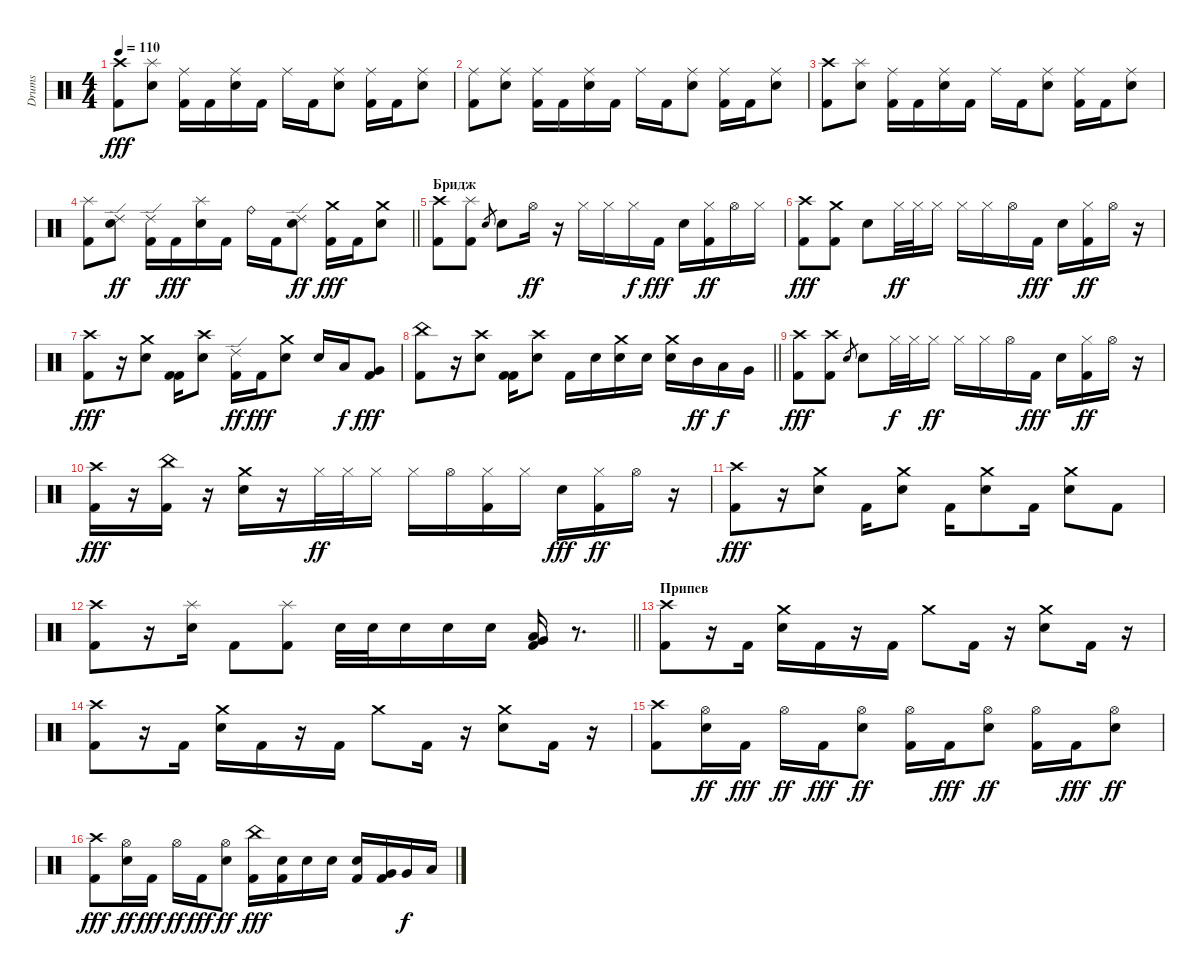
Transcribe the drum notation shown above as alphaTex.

\track ("Drums" "Drums") {instrument percussion}
\staff {score}
\articulation defaults
\ts (4 4)
\tempo 110
\clef neutral
\ks c
("Kick (hit) 2" "Crash high (hit)").8{dy fff} ("Electric Snare (hit)" "Splash (hit)").8 ("Kick (hit) 2" "Ride (middle)").16 "Kick (hit) 2".16 ("Electric Snare (hit)" "Ride (middle)").16 "Kick (hit) 2".16 "Ride (middle)".16 "Kick (hit) 2".16 ("Electric Snare (hit)" "Ride (middle)").8 ("Kick (hit) 2" "Ride (middle)").16 "Kick (hit) 2".16 ("Electric Snare (hit)" "Ride (middle)").8 |
("Kick (hit) 2" "Ride (middle)").8 ("Electric Snare (hit)" "Ride (middle)").8 ("Kick (hit) 2" "Ride (middle)").16 "Kick (hit) 2".16 ("Electric Snare (hit)" "Ride (middle)").16 "Kick (hit) 2".16 "Ride (middle)".16 "Kick (hit) 2".16 ("Electric Snare (hit)" "Ride (middle)").8 ("Kick (hit) 2" "Ride (middle)").16 "Kick (hit) 2".16 ("Electric Snare (hit)" "Ride (middle)").8 |
("Kick (hit) 2" "Crash high (hit)").8 ("Electric Snare (hit)" "Splash (hit)").8 ("Kick (hit) 2" "Ride (middle)").16 "Kick (hit) 2".16 ("Electric Snare (hit)" "Ride (middle)").16 "Kick (hit) 2".16 "Ride (middle)".16 "Kick (hit) 2".16 ("Electric Snare (hit)" "Ride (middle)").8 ("Kick (hit) 2" "Ride (middle)").16 "Kick (hit) 2".16 ("Electric Snare (hit)" "Ride (middle)").8 |
\barLineRight lightlight
("Kick (hit) 2" "Splash (hit)").8 ("Electric Snare (hit)" "Ride (edge) 2").8{dy ff} ("Kick (hit) 2" "Ride (edge) 2").16 "Kick (hit) 2".16{dy fff} ("Electric Snare (hit)" "Splash (hit)").16 "Kick (hit) 2".16 "Ride (bell)".16 "Kick (hit) 2".16 ("Electric Snare (hit)" "Ride (edge) 2").8{dy ff} ("Kick (hit) 2" "Crash medium (hit)").16{dy fff} "Kick (hit) 2".16 ("Electric Snare (hit)" "Crash medium (hit)").8 |
\section ("" "Бридж")
("Kick (hit) 2" "Crash high (hit)").8 ("Kick (hit) 2" "Splash (hit)").8 "Electric Snare (hit)".8{gr} "Electric Snare (hit)".8 "Hi-Hat (open)".16{dy ff} r.16 "Hi-Hat (closed)".16 "Hi-Hat (closed)".16 "Hi-Hat (closed)".16{dy f} "Kick (hit) 2".16{dy fff} "Electric Snare (hit)".16 ("Kick (hit) 2" "Hi-Hat (closed)").16{dy ff} "Hi-Hat (open)".16 "Hi-Hat (closed)".16 |
("Kick (hit) 2" "Crash high (hit)").8{dy fff} ("Kick (hit) 2" "Crash medium (hit)").8 "Electric Snare (hit)".8 "Hi-Hat (closed)".32{dy ff} "Hi-Hat (closed)".32 "Hi-Hat (closed)".16 "Hi-Hat (closed)".16 "Hi-Hat (closed)".16 "Hi-Hat (open)".16 "Kick (hit) 2".16{dy fff} "Electric Snare (hit)".16 ("Kick (hit) 2" "Hi-Hat (closed)").16{dy ff} "Hi-Hat (open)".16 r.16 |
("Kick (hit) 2" "Crash high (hit)").8{dy fff} r.16 ("Electric Snare (hit)" "Crash medium (hit)").8 ("Kick (hit) 2" "Kick (hit) 2").16 ("Electric Snare (hit)" "Crash high (hit)").8 ("Kick (hit) 2" "Ride (edge) 2").16{dy ff} "Kick (hit) 2".16{dy fff} ("Electric Snare (hit)" "Crash medium (hit)").8 "Electric Snare (hit)".16 "Low Tom (hit)".16{dy f} ("Kick (hit) 2" "Very Low Tom (hit)").8{dy fff} |
\barLineRight lightlight
("Kick (hit) 2" "China (hit)").8 r.16 ("Electric Snare (hit)" "Crash high (hit)").8 ("Kick (hit) 2" "Kick (hit) 2").16 ("Electric Snare (hit)" "Crash high (hit)").8 "Kick (hit) 2".16 "Electric Snare (hit)".16 ("Electric Snare (hit)" "Crash medium (hit)").16 "Electric Snare (hit)".16 ("Electric Snare (hit)" "Crash medium (hit)").16 "Mid Tom (hit)".16{dy ff} "Low Tom (hit)".16{dy f} "Very Low Tom (hit)".16 |
("Kick (hit) 2" "Crash high (hit)").8{dy fff} ("Kick (hit) 2" "Crash high (hit)").8 "Electric Snare (hit)".8{gr} "Electric Snare (hit)".8 "Hi-Hat (closed)".32{dy f} "Hi-Hat (closed)".32 "Hi-Hat (closed)".16{dy ff} "Hi-Hat (closed)".16 "Hi-Hat (closed)".16 "Hi-Hat (open)".16 "Kick (hit) 2".16{dy fff} "Electric Snare (hit)".16 ("Kick (hit) 2" "Hi-Hat (closed)").16{dy ff} "Hi-Hat (open)".16 r.16 |
("Kick (hit) 2" "Crash high (hit)").16{dy fff} r.16 ("Kick (hit) 2" "China (hit)").16 r.16 ("Electric Snare (hit)" "Crash medium (hit)").16 r.16 "Hi-Hat (closed)".32{dy ff} "Hi-Hat (closed)".32 "Hi-Hat (closed)".16 "Hi-Hat (closed)".16 "Hi-Hat (open)".16 ("Kick (hit) 2" "Hi-Hat (closed)").16 "Hi-Hat (closed)".16 "Electric Snare (hit)".16{dy fff} ("Kick (hit) 2" "Hi-Hat (closed)").16{dy ff} "Hi-Hat (open)".16 r.16 |
("Kick (hit) 2" "Crash high (hit)").8{dy fff} r.16 ("Electric Snare (hit)" "Crash medium (hit)").8 "Kick (hit) 2".16 ("Electric Snare (hit)" "Crash medium (hit)").8 "Kick (hit) 2".16 ("Electric Snare (hit)" "Crash medium (hit)").8 "Kick (hit) 2".16 ("Electric Snare (hit)" "Crash medium (hit)").8 "Kick (hit) 2".8 |
\barLineRight lightlight
("Kick (hit) 2" "Crash high (hit)").8 r.16 ("Electric Snare (hit)" "Splash (hit)").16 "Kick (hit) 2".8 ("Kick (hit) 2" "Splash (hit)").8 "Electric Snare (hit)".32 "Electric Snare (hit)".32 "Electric Snare (hit)".16 "Electric Snare (hit)".16 "Electric Snare (hit)".16 ("Kick (hit) 2" "Low Floor Tom (hit)" "Very Low Tom (hit)").16 r.8{d} |
\section ("" "Припев")
("Kick (hit) 2" "Crash high (hit)").8 r.16 "Kick (hit) 2".16 ("Electric Snare (hit)" "Crash medium (hit)").16 "Kick (hit) 2".16 r.16 "Kick (hit) 2".16 "Crash medium (hit)".8 "Kick (hit) 2".16 r.16 ("Electric Snare (hit)" "Crash medium (hit)").8 "Kick (hit) 2".16 r.16 |
("Kick (hit) 2" "Crash high (hit)").8 r.16 "Kick (hit) 2".16 ("Electric Snare (hit)" "Crash medium (hit)").16 "Kick (hit) 2".16 r.16 "Kick (hit) 2".16 "Crash medium (hit)".8 "Kick (hit) 2".16 r.16 ("Electric Snare (hit)" "Crash medium (hit)").8 "Kick (hit) 2".16 r.16 |
("Kick (hit) 2" "Crash high (hit)").8 ("Electric Snare (hit)" "Hi-Hat (open)").16{dy ff} "Kick (hit) 2".16{dy fff} "Hi-Hat (open)".16{dy ff} "Kick (hit) 2".16{dy fff} ("Electric Snare (hit)" "Hi-Hat (open)").8{dy ff} ("Kick (hit) 2" "Hi-Hat (open)").16 "Kick (hit) 2".16{dy fff} ("Electric Snare (hit)" "Hi-Hat (open)").8{dy ff} ("Kick (hit) 2" "Hi-Hat (open)").16 "Kick (hit) 2".16{dy fff} ("Electric Snare (hit)" "Hi-Hat (open)").8{dy ff} |
("Kick (hit) 2" "Crash high (hit)").8{dy fff} ("Electric Snare (hit)" "Hi-Hat (open)").16{dy ff} "Kick (hit) 2".16{dy fff} "Hi-Hat (open)".16{dy ff} "Kick (hit) 2".16{dy fff} ("Electric Snare (hit)" "Hi-Hat (open)").8{dy ff} ("Kick (hit) 2" "China (hit)").16{dy fff} ("Kick (hit) 2" "Electric Snare (hit)").16 "Electric Snare (hit)".16 "Electric Snare (hit)".16 ("Kick (hit) 2" "Electric Snare (hit)").16 ("Kick (hit) 2" "Very Low Tom (hit)").16 "Very Low Tom (hit)".16{dy f} "Low Floor Tom (hit)".16
